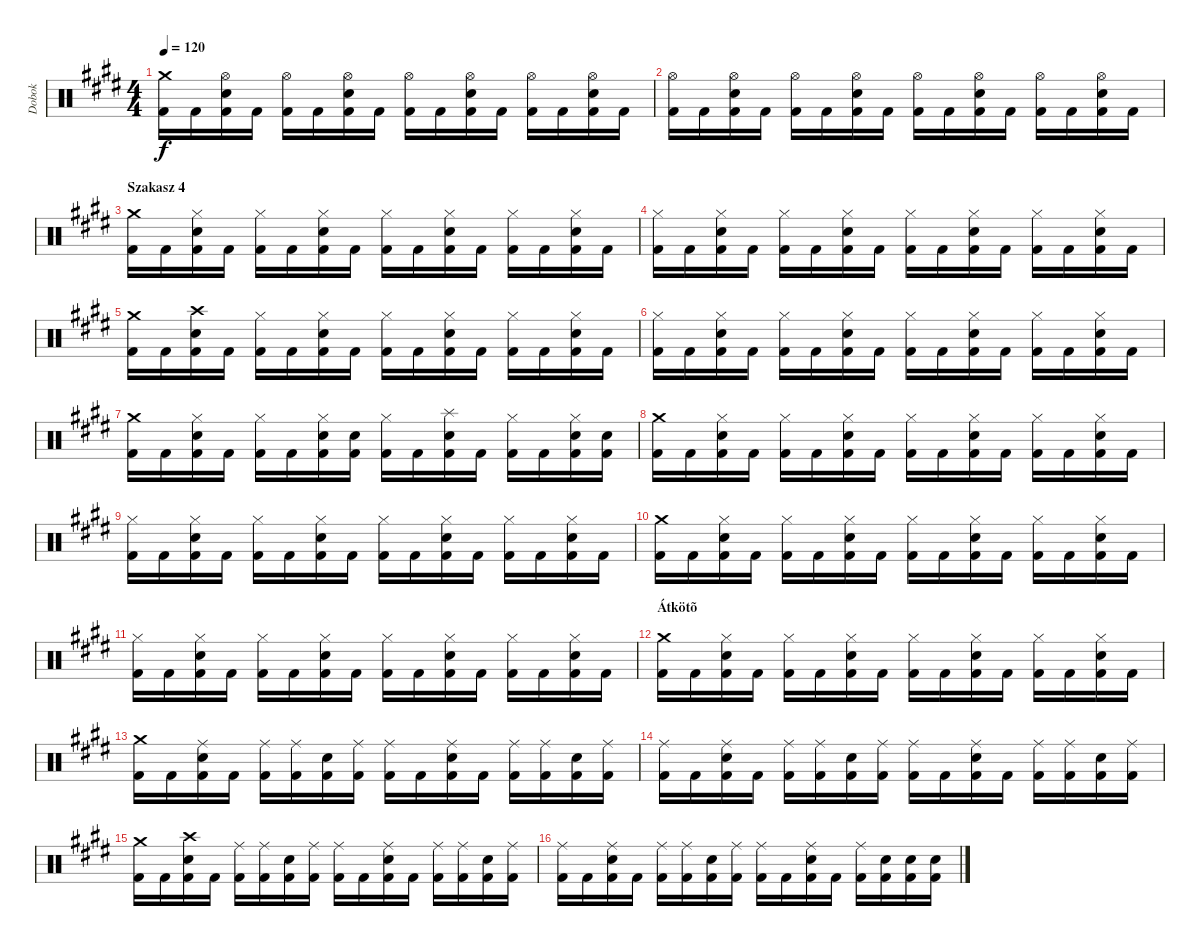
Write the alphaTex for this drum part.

\track ("Dobok" "Dobok") {instrument percussion}
\staff {score}
\articulation defaults
\ts (4 4)
\tempo 120
\clef neutral
\ks c#minor
("Crash medium (hit)" "Kick (hit) 2").16{dy f} "Kick (hit) 2".16 ("Hi-Hat (open)" "Snare (hit) 2" "Kick (hit) 2").16 "Kick (hit) 2".16 ("Hi-Hat (open)" "Kick (hit) 2").16 "Kick (hit) 2".16 ("Hi-Hat (open)" "Snare (hit) 2" "Kick (hit) 2").16 "Kick (hit) 2".16 ("Hi-Hat (open)" "Kick (hit) 2").16 "Kick (hit) 2".16 ("Hi-Hat (open)" "Snare (hit) 2" "Kick (hit) 2").16 "Kick (hit) 2".16 ("Hi-Hat (open)" "Kick (hit) 2").16 "Kick (hit) 2".16 ("Hi-Hat (open)" "Snare (hit) 2" "Kick (hit) 2").16 "Kick (hit) 2".16 |
("Hi-Hat (open)" "Kick (hit) 2").16 "Kick (hit) 2".16 ("Hi-Hat (open)" "Snare (hit) 2" "Kick (hit) 2").16 "Kick (hit) 2".16 ("Hi-Hat (open)" "Kick (hit) 2").16 "Kick (hit) 2".16 ("Hi-Hat (open)" "Snare (hit) 2" "Kick (hit) 2").16 "Kick (hit) 2".16 ("Hi-Hat (open)" "Kick (hit) 2").16 "Kick (hit) 2".16 ("Hi-Hat (open)" "Snare (hit) 2" "Kick (hit) 2").16 "Kick (hit) 2".16 ("Hi-Hat (open)" "Kick (hit) 2").16 "Kick (hit) 2".16 ("Hi-Hat (open)" "Snare (hit) 2" "Kick (hit) 2").16 "Kick (hit) 2".16 |
\section ("" "Szakasz 4")
("Crash medium (hit)" "Kick (hit) 2").16 "Kick (hit) 2".16 ("Hi-Hat (closed)" "Snare (hit) 2" "Kick (hit) 2").16 "Kick (hit) 2".16 ("Hi-Hat (closed)" "Kick (hit) 2").16 "Kick (hit) 2".16 ("Hi-Hat (closed)" "Snare (hit) 2" "Kick (hit) 2").16 "Kick (hit) 2".16 ("Hi-Hat (closed)" "Kick (hit) 2").16 "Kick (hit) 2".16 ("Hi-Hat (closed)" "Snare (hit) 2" "Kick (hit) 2").16 "Kick (hit) 2".16 ("Hi-Hat (closed)" "Kick (hit) 2").16 "Kick (hit) 2".16 ("Hi-Hat (closed)" "Snare (hit) 2" "Kick (hit) 2").16 "Kick (hit) 2".16 |
("Hi-Hat (closed)" "Kick (hit) 2").16 "Kick (hit) 2".16 ("Hi-Hat (closed)" "Snare (hit) 2" "Kick (hit) 2").16 "Kick (hit) 2".16 ("Hi-Hat (closed)" "Kick (hit) 2").16 "Kick (hit) 2".16 ("Hi-Hat (closed)" "Snare (hit) 2" "Kick (hit) 2").16 "Kick (hit) 2".16 ("Hi-Hat (closed)" "Kick (hit) 2").16 "Kick (hit) 2".16 ("Hi-Hat (closed)" "Snare (hit) 2" "Kick (hit) 2").16 "Kick (hit) 2".16 ("Hi-Hat (closed)" "Kick (hit) 2").16 "Kick (hit) 2".16 ("Hi-Hat (closed)" "Snare (hit) 2" "Kick (hit) 2").16 "Kick (hit) 2".16 |
("Crash medium (hit)" "Kick (hit) 2").16 "Kick (hit) 2".16 ("Crash high (hit)" "Snare (hit) 2" "Kick (hit) 2").16 "Kick (hit) 2".16 ("Hi-Hat (closed)" "Kick (hit) 2").16 "Kick (hit) 2".16 ("Hi-Hat (closed)" "Snare (hit) 2" "Kick (hit) 2").16 "Kick (hit) 2".16 ("Hi-Hat (closed)" "Kick (hit) 2").16 "Kick (hit) 2".16 ("Hi-Hat (closed)" "Snare (hit) 2" "Kick (hit) 2").16 "Kick (hit) 2".16 ("Hi-Hat (closed)" "Kick (hit) 2").16 "Kick (hit) 2".16 ("Hi-Hat (closed)" "Snare (hit) 2" "Kick (hit) 2").16 "Kick (hit) 2".16 |
("Hi-Hat (closed)" "Kick (hit) 2").16 "Kick (hit) 2".16 ("Hi-Hat (closed)" "Snare (hit) 2" "Kick (hit) 2").16 "Kick (hit) 2".16 ("Hi-Hat (closed)" "Kick (hit) 2").16 "Kick (hit) 2".16 ("Hi-Hat (closed)" "Snare (hit) 2" "Kick (hit) 2").16 "Kick (hit) 2".16 ("Hi-Hat (closed)" "Kick (hit) 2").16 "Kick (hit) 2".16 ("Hi-Hat (closed)" "Snare (hit) 2" "Kick (hit) 2").16 "Kick (hit) 2".16 ("Hi-Hat (closed)" "Kick (hit) 2").16 "Kick (hit) 2".16 ("Hi-Hat (closed)" "Snare (hit) 2" "Kick (hit) 2").16 "Kick (hit) 2".16 |
("Crash medium (hit)" "Kick (hit) 2").16 "Kick (hit) 2".16 ("Hi-Hat (closed)" "Snare (hit) 2" "Kick (hit) 2").16 "Kick (hit) 2".16 ("Hi-Hat (closed)" "Kick (hit) 2").16 "Kick (hit) 2".16 ("Hi-Hat (closed)" "Snare (hit) 2" "Kick (hit) 2").16 ("Snare (hit) 2" "Kick (hit) 2").16 ("Hi-Hat (closed)" "Kick (hit) 2").16 "Kick (hit) 2".16 ("Splash (hit)" "Snare (hit) 2" "Kick (hit) 2").16 "Kick (hit) 2".16 ("Hi-Hat (closed)" "Kick (hit) 2").16 "Kick (hit) 2".16 ("Hi-Hat (closed)" "Snare (hit) 2" "Kick (hit) 2").16 ("Snare (hit) 2" "Kick (hit) 2").16 |
("Crash medium (hit)" "Kick (hit) 2").16 "Kick (hit) 2".16 ("Hi-Hat (closed)" "Snare (hit) 2" "Kick (hit) 2").16 "Kick (hit) 2".16 ("Hi-Hat (closed)" "Kick (hit) 2").16 "Kick (hit) 2".16 ("Hi-Hat (closed)" "Snare (hit) 2" "Kick (hit) 2").16 "Kick (hit) 2".16 ("Hi-Hat (closed)" "Kick (hit) 2").16 "Kick (hit) 2".16 ("Hi-Hat (closed)" "Snare (hit) 2" "Kick (hit) 2").16 "Kick (hit) 2".16 ("Hi-Hat (closed)" "Kick (hit) 2").16 "Kick (hit) 2".16 ("Hi-Hat (closed)" "Snare (hit) 2" "Kick (hit) 2").16 "Kick (hit) 2".16 |
("Hi-Hat (closed)" "Kick (hit) 2").16 "Kick (hit) 2".16 ("Hi-Hat (closed)" "Snare (hit) 2" "Kick (hit) 2").16 "Kick (hit) 2".16 ("Hi-Hat (closed)" "Kick (hit) 2").16 "Kick (hit) 2".16 ("Hi-Hat (closed)" "Snare (hit) 2" "Kick (hit) 2").16 "Kick (hit) 2".16 ("Hi-Hat (closed)" "Kick (hit) 2").16 "Kick (hit) 2".16 ("Hi-Hat (closed)" "Snare (hit) 2" "Kick (hit) 2").16 "Kick (hit) 2".16 ("Hi-Hat (closed)" "Kick (hit) 2").16 "Kick (hit) 2".16 ("Hi-Hat (closed)" "Snare (hit) 2" "Kick (hit) 2").16 "Kick (hit) 2".16 |
("Crash medium (hit)" "Kick (hit) 2").16 "Kick (hit) 2".16 ("Hi-Hat (closed)" "Snare (hit) 2" "Kick (hit) 2").16 "Kick (hit) 2".16 ("Hi-Hat (closed)" "Kick (hit) 2").16 "Kick (hit) 2".16 ("Hi-Hat (closed)" "Snare (hit) 2" "Kick (hit) 2").16 "Kick (hit) 2".16 ("Hi-Hat (closed)" "Kick (hit) 2").16 "Kick (hit) 2".16 ("Hi-Hat (closed)" "Snare (hit) 2" "Kick (hit) 2").16 "Kick (hit) 2".16 ("Hi-Hat (closed)" "Kick (hit) 2").16 "Kick (hit) 2".16 ("Hi-Hat (closed)" "Snare (hit) 2" "Kick (hit) 2").16 "Kick (hit) 2".16 |
("Hi-Hat (closed)" "Kick (hit) 2").16 "Kick (hit) 2".16 ("Hi-Hat (closed)" "Snare (hit) 2" "Kick (hit) 2").16 "Kick (hit) 2".16 ("Hi-Hat (closed)" "Kick (hit) 2").16 "Kick (hit) 2".16 ("Hi-Hat (closed)" "Snare (hit) 2" "Kick (hit) 2").16 "Kick (hit) 2".16 ("Hi-Hat (closed)" "Kick (hit) 2").16 "Kick (hit) 2".16 ("Hi-Hat (closed)" "Snare (hit) 2" "Kick (hit) 2").16 "Kick (hit) 2".16 ("Hi-Hat (closed)" "Kick (hit) 2").16 "Kick (hit) 2".16 ("Hi-Hat (closed)" "Snare (hit) 2" "Kick (hit) 2").16 "Kick (hit) 2".16 |
\section ("" "Átkötõ")
("Crash medium (hit)" "Kick (hit) 2").16 "Kick (hit) 2".16 ("Hi-Hat (closed)" "Snare (hit) 2" "Kick (hit) 2").16 "Kick (hit) 2".16 ("Hi-Hat (closed)" "Kick (hit) 2").16 "Kick (hit) 2".16 ("Hi-Hat (closed)" "Snare (hit) 2" "Kick (hit) 2").16 "Kick (hit) 2".16 ("Hi-Hat (closed)" "Kick (hit) 2").16 "Kick (hit) 2".16 ("Hi-Hat (closed)" "Snare (hit) 2" "Kick (hit) 2").16 "Kick (hit) 2".16 ("Hi-Hat (closed)" "Kick (hit) 2").16 "Kick (hit) 2".16 ("Hi-Hat (closed)" "Snare (hit) 2" "Kick (hit) 2").16 "Kick (hit) 2".16 |
("Crash medium (hit)" "Kick (hit) 2").16 "Kick (hit) 2".16 ("Ride (middle)" "Snare (hit) 2" "Kick (hit) 2").16 "Kick (hit) 2".16 ("Ride (middle)" "Kick (hit) 2").16 ("Ride (middle)" "Kick (hit) 2").16 ("Snare (hit) 2" "Kick (hit) 2").16 ("Ride (middle)" "Kick (hit) 2").16 ("Ride (middle)" "Kick (hit) 2").16 "Kick (hit) 2".16 ("Ride (middle)" "Snare (hit) 2" "Kick (hit) 2").16 "Kick (hit) 2".16 ("Ride (middle)" "Kick (hit) 2").16 ("Ride (middle)" "Kick (hit) 2").16 ("Snare (hit) 2" "Kick (hit) 2").16 ("Ride (middle)" "Kick (hit) 2").16 |
("Ride (middle)" "Kick (hit) 2").16 "Kick (hit) 2".16 ("Ride (middle)" "Snare (hit) 2" "Kick (hit) 2").16 "Kick (hit) 2".16 ("Ride (middle)" "Kick (hit) 2").16 ("Ride (middle)" "Kick (hit) 2").16 ("Snare (hit) 2" "Kick (hit) 2").16 ("Ride (middle)" "Kick (hit) 2").16 ("Ride (middle)" "Kick (hit) 2").16 "Kick (hit) 2".16 ("Ride (middle)" "Snare (hit) 2" "Kick (hit) 2").16 "Kick (hit) 2".16 ("Ride (middle)" "Kick (hit) 2").16 ("Ride (middle)" "Kick (hit) 2").16 ("Snare (hit) 2" "Kick (hit) 2").16 ("Ride (middle)" "Kick (hit) 2").16 |
("Crash medium (hit)" "Kick (hit) 2").16 "Kick (hit) 2".16 ("Crash high (hit)" "Snare (hit) 2" "Kick (hit) 2").16 "Kick (hit) 2".16 ("Ride (middle)" "Kick (hit) 2").16 ("Ride (middle)" "Kick (hit) 2").16 ("Snare (hit) 2" "Kick (hit) 2").16 ("Ride (middle)" "Kick (hit) 2").16 ("Ride (middle)" "Kick (hit) 2").16 "Kick (hit) 2".16 ("Ride (middle)" "Snare (hit) 2" "Kick (hit) 2").16 "Kick (hit) 2".16 ("Ride (middle)" "Kick (hit) 2").16 ("Ride (middle)" "Kick (hit) 2").16 ("Snare (hit) 2" "Kick (hit) 2").16 ("Ride (middle)" "Kick (hit) 2").16 |
("Ride (middle)" "Kick (hit) 2").16 "Kick (hit) 2".16 ("Ride (middle)" "Snare (hit) 2" "Kick (hit) 2").16 "Kick (hit) 2".16 ("Ride (middle)" "Kick (hit) 2").16 ("Ride (middle)" "Kick (hit) 2").16 ("Snare (hit) 2" "Kick (hit) 2").16 ("Ride (middle)" "Kick (hit) 2").16 ("Ride (middle)" "Kick (hit) 2").16 "Kick (hit) 2".16 ("Ride (middle)" "Snare (hit) 2" "Kick (hit) 2").16 "Kick (hit) 2".16 ("Ride (middle)" "Kick (hit) 2").16 ("Snare (hit) 2" "Kick (hit) 2").16 ("Snare (hit) 2" "Kick (hit) 2").16 ("Snare (hit) 2" "Kick (hit) 2").16
